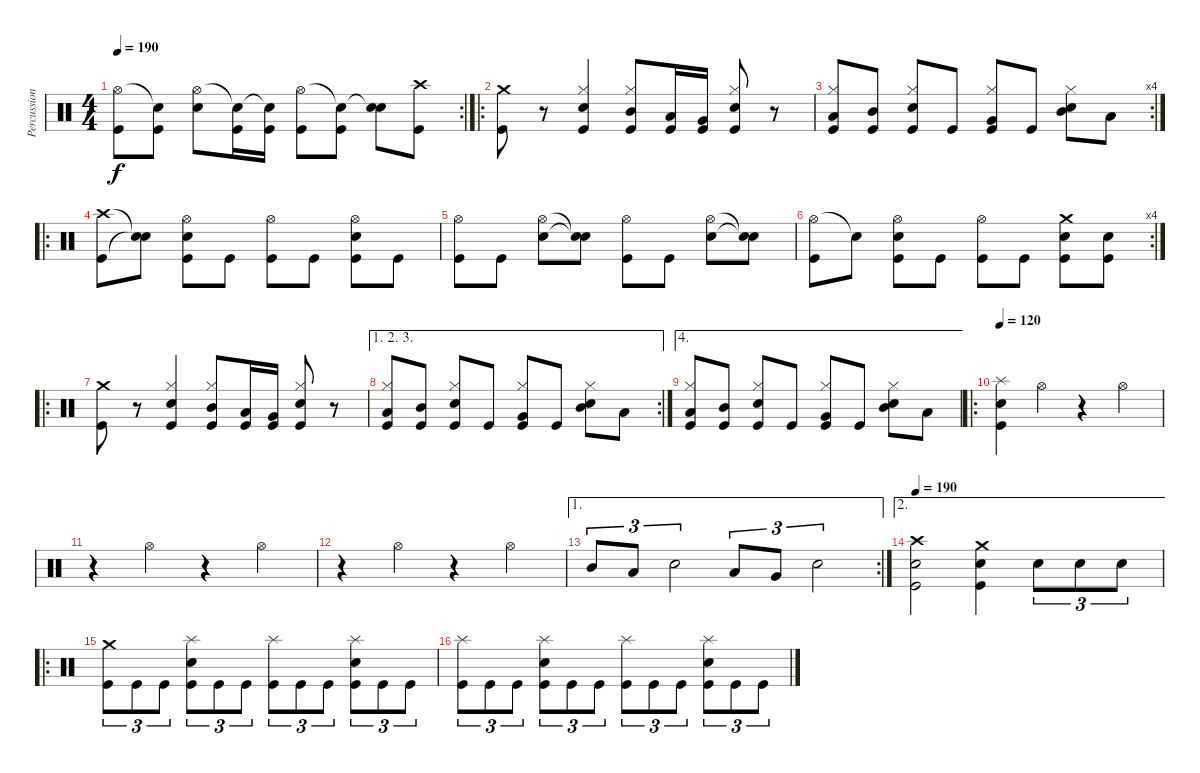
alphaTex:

\track ("Percussion" "Percussion") {instrument percussion}
\staff {score}
\articulation defaults
\rc 2
\ts (4 4)
\tempo 190
\clef neutral
\ks c
("Hi-Hat (open)" "Kick (hit)").8{dy f} ("Snare (hit)"{t} "Kick (hit)").8 ("Hi-Hat (open)" "Snare (hit) 2").8 ("Snare (hit)"{t} "Kick (hit)").16 ("Snare (hit)"{t} "Kick (hit)").16 ("Hi-Hat (open)" "Kick (hit)").8 ("Snare (hit)"{t} "Kick (hit)").8 ("Snare (hit)"{t} "Snare (hit) 2").8 ("Crash high (hit)" "Kick (hit)").8 |
\ro
("Crash medium (hit)" "Kick (hit)").8 r.8 ("Hi-Hat (closed)" "Electric Snare (hit)" "Kick (hit)").4 ("Hi-Hat (closed)" "Mid Tom (hit)" "Kick (hit)").8 ("Low Tom (hit)" "Kick (hit)").16 ("Very Low Tom (hit)" "Kick (hit)").16 ("Hi-Hat (closed)" "Electric Snare (hit)" "Kick (hit)").8 r.8 |
\rc 4
("Hi-Hat (closed)" "Low Tom (hit)" "Kick (hit)").8 ("Mid Tom (hit)" "Kick (hit)").8 ("Hi-Hat (closed)" "Electric Snare (hit)" "Kick (hit)").8 "Kick (hit)".8 ("Hi-Hat (closed)" "Very Low Tom (hit)" "Kick (hit)").8 "Kick (hit)".8 ("Hi-Hat (closed)" "Electric Snare (hit)" "Mid Tom (hit)").8 "Low Tom (hit)".8 |
\ro
("Crash high (hit)" "Kick (hit)").8 ("Snare (hit)"{t} "Snare (hit)"{t}).8 ("Hi-Hat (open)" "Snare (hit) 2" "Kick (hit)").8 "Kick (hit)".8 ("Hi-Hat (open)" "Kick (hit)").8 "Kick (hit)".8 ("Hi-Hat (open)" "Snare (hit) 2" "Kick (hit)").8 "Kick (hit)".8 |
("Hi-Hat (open)" "Kick (hit)").8 "Kick (hit)".8 ("Hi-Hat (open)" "Snare (hit) 2").8 ("Snare (hit)"{t} "Snare (hit)"{t}).8 ("Hi-Hat (open)" "Kick (hit)").8 "Kick (hit)".8 ("Hi-Hat (open)" "Snare (hit) 2").8 ("Snare (hit)"{t} "Snare (hit)"{t}).8 |
\rc 4
("Hi-Hat (open)" "Kick (hit)").8 "Snare (hit)"{t}.8 ("Hi-Hat (open)" "Snare (hit) 2" "Kick (hit)").8 "Kick (hit)".8 ("Hi-Hat (open)" "Kick (hit)").8 "Kick (hit)".8 ("Crash medium (hit)" "Snare (hit) 2" "Kick (hit)").8 ("Snare (hit) 2" "Kick (hit)").8 |
\ro
("Crash medium (hit)" "Kick (hit)").8 r.8 ("Hi-Hat (closed)" "Electric Snare (hit)" "Kick (hit)").4 ("Hi-Hat (closed)" "Mid Tom (hit)" "Kick (hit)").8 ("Low Tom (hit)" "Kick (hit)").16 ("Very Low Tom (hit)" "Kick (hit)").16 ("Hi-Hat (closed)" "Electric Snare (hit)" "Kick (hit)").8 r.8 |
\ae (1 2 3)
\rc 2
("Hi-Hat (closed)" "Low Tom (hit)" "Kick (hit)").8 ("Mid Tom (hit)" "Kick (hit)").8 ("Hi-Hat (closed)" "Electric Snare (hit)" "Kick (hit)").8 "Kick (hit)".8 ("Hi-Hat (closed)" "Very Low Tom (hit)" "Kick (hit)").8 "Kick (hit)".8 ("Hi-Hat (closed)" "Electric Snare (hit)" "Mid Tom (hit)").8 "Low Tom (hit)".8 |
\ae 4
("Hi-Hat (closed)" "Low Tom (hit)" "Kick (hit)").8 ("Mid Tom (hit)" "Kick (hit)").8 ("Hi-Hat (closed)" "Electric Snare (hit)" "Kick (hit)").8 "Kick (hit)".8 ("Hi-Hat (closed)" "Very Low Tom (hit)" "Kick (hit)").8 "Kick (hit)".8 ("Hi-Hat (closed)" "Electric Snare (hit)" "Mid Tom (hit)").8 "Low Tom (hit)".8 |
\ro
\tempo 120
("Splash (hit)" "Snare (hit) 2" "Kick (hit)").4 "Hi-Hat (open)".4 r.4 "Hi-Hat (open)".4 |
r.4 "Hi-Hat (open)".4 r.4 "Hi-Hat (open)".4 |
r.4 "Hi-Hat (open)".4 r.4 "Hi-Hat (open)".4 |
\ae 1
\rc 2 "Mid Tom (hit)".8{tu (3 2)} "Low Tom (hit)".8{tu (3 2)} "Snare (hit) 2".2{tu (3 2)} "Low Tom (hit)".8{tu (3 2)} "Very Low Tom (hit)".8{tu (3 2)} "Snare (hit) 2".2{tu (3 2)}
|
\ae 2
\tempo 190
("Crash high (hit)" "Snare (hit) 2" "Kick (hit)").2 ("Crash medium (hit)" "Snare (hit) 2" "Kick (hit)").4 "Snare (hit) 2".8{tu (3 2)} "Snare (hit) 2".8{tu (3 2)} "Snare (hit) 2".8{tu (3 2)} |
\ro
("Crash medium (hit)" "Kick (hit)").8{tu (3 2)} "Kick (hit)".8{tu (3 2)} "Kick (hit)".8{tu (3 2)} ("Splash (hit)" "Snare (hit) 2" "Kick (hit)").8{tu (3 2)} "Kick (hit)".8{tu (3 2)} "Kick (hit)".8{tu (3 2)} ("Splash (hit)" "Kick (hit)").8{tu (3 2)} "Kick (hit)".8{tu (3 2)} "Kick (hit)".8{tu (3 2)} ("Splash (hit)" "Snare (hit) 2" "Kick (hit)").8{tu (3 2)} "Kick (hit)".8{tu (3 2)} "Kick (hit)".8{tu (3 2)} |
("Splash (hit)" "Kick (hit)").8{tu (3 2)} "Kick (hit)".8{tu (3 2)} "Kick (hit)".8{tu (3 2)} ("Splash (hit)" "Snare (hit) 2" "Kick (hit)").8{tu (3 2)} "Kick (hit)".8{tu (3 2)} "Kick (hit)".8{tu (3 2)} ("Splash (hit)" "Kick (hit)").8{tu (3 2)} "Kick (hit)".8{tu (3 2)} "Kick (hit)".8{tu (3 2)} ("Splash (hit)" "Snare (hit) 2" "Kick (hit)").8{tu (3 2)} "Kick (hit)".8{tu (3 2)} "Kick (hit)".8{tu (3 2)}
